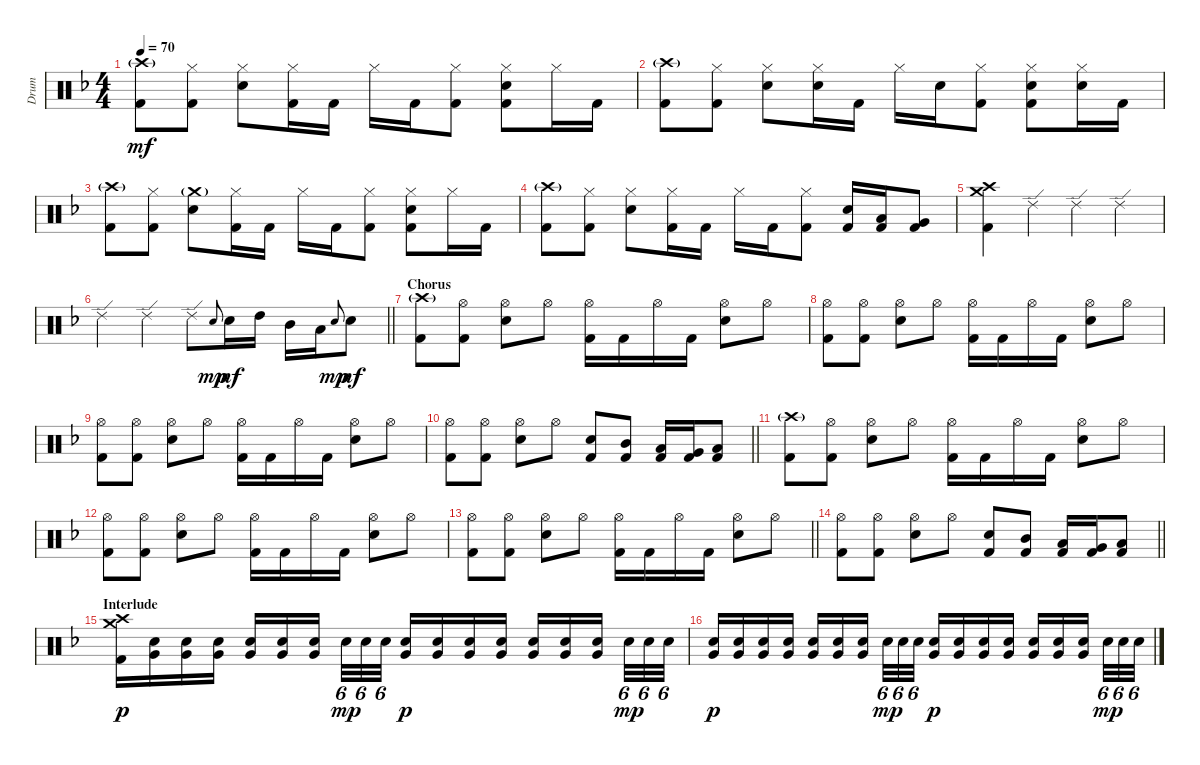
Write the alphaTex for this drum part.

\track ("Drum" "Drum") {instrument percussion}
\staff {score}
\articulation defaults
\ts (4 4)
\tempo 70
\clef neutral
\ks f
("Crash high (hit)"{g} "Kick (hit) 2").8{dy mf} ("Hi-Hat (closed)" "Kick (hit) 2").8 ("Hi-Hat (closed)" "Electric Snare (hit)").8 ("Hi-Hat (closed)" "Kick (hit) 2").16 "Kick (hit) 2".16 "Hi-Hat (closed)".16 "Kick (hit) 2".16 ("Hi-Hat (closed)" "Kick (hit) 2").8 ("Hi-Hat (closed)" "Electric Snare (hit)" "Kick (hit) 2").8 "Hi-Hat (closed)".16 "Kick (hit) 2".16 |
("Crash high (hit)"{g} "Kick (hit) 2").8 ("Hi-Hat (closed)" "Kick (hit) 2").8 ("Hi-Hat (closed)" "Electric Snare (hit)").8 ("Hi-Hat (closed)" "Electric Snare (hit)").16 "Kick (hit) 2".16 "Hi-Hat (closed)".16 "Electric Snare (hit)".16 ("Hi-Hat (closed)" "Kick (hit) 2").8 ("Hi-Hat (closed)" "Electric Snare (hit)" "Kick (hit) 2").8 ("Hi-Hat (closed)" "Electric Snare (hit)").16 "Kick (hit) 2".16 |
("Crash high (hit)"{g} "Kick (hit) 2").8 ("Hi-Hat (closed)" "Kick (hit) 2").8 ("Crash medium (hit)"{g} "Electric Snare (hit)").8 ("Hi-Hat (closed)" "Kick (hit) 2").16 "Kick (hit) 2".16 "Hi-Hat (closed)".16 "Kick (hit) 2".16 ("Hi-Hat (closed)" "Kick (hit) 2").8 ("Hi-Hat (closed)" "Electric Snare (hit)" "Kick (hit) 2").8 "Hi-Hat (closed)".16 "Kick (hit) 2".16 |
("Crash high (hit)"{g} "Kick (hit) 2").8 ("Hi-Hat (closed)" "Kick (hit) 2").8 ("Hi-Hat (closed)" "Electric Snare (hit)").8 ("Hi-Hat (closed)" "Kick (hit) 2").16 "Kick (hit) 2".16 "Hi-Hat (closed)".16 "Kick (hit) 2".16 ("Hi-Hat (closed)" "Kick (hit) 2").8 ("Electric Snare (hit)" "Kick (hit) 2").16 ("Low Tom (hit)" "Kick (hit) 2").16 ("Very Low Tom (hit)" "Kick (hit) 2").8 |
("Crash high (hit)" "Crash medium (hit)" "Kick (hit) 2").4 "Ride (edge) 2".4 "Ride (edge) 2".4 "Ride (edge) 2".4 |
\barLineRight lightlight "Ride (edge) 2".4 "Ride (edge) 2".4 "Ride (edge) 2".8 "Electric Snare (hit)".8{gr onbeat dy mp} "Electric Snare (hit)".16{dy mf} "High Tom (hit)".16 "Mid Tom (hit)".16 "Low Tom (hit)".16 "Electric Snare (hit)".8{gr onbeat dy mp} "Electric Snare (hit)".8{dy mf}
|
\section ("" "Chorus")
("Crash high (hit)"{g} "Kick (hit) 2").8 ("Hi-Hat (open)" "Kick (hit) 2").8 ("Hi-Hat (open)" "Electric Snare (hit)").8 "Hi-Hat (open)".8 ("Hi-Hat (open)" "Kick (hit) 2").16 "Kick (hit) 2".16 "Hi-Hat (open)".16 "Kick (hit) 2".16 ("Hi-Hat (open)" "Electric Snare (hit)").8 "Hi-Hat (open)".8 |
("Hi-Hat (open)" "Kick (hit) 2").8 ("Hi-Hat (open)" "Kick (hit) 2").8 ("Hi-Hat (open)" "Electric Snare (hit)").8 "Hi-Hat (open)".8 ("Hi-Hat (open)" "Kick (hit) 2").16 "Kick (hit) 2".16 "Hi-Hat (open)".16 "Kick (hit) 2".16 ("Hi-Hat (open)" "Electric Snare (hit)").8 "Hi-Hat (open)".8 |
("Hi-Hat (open)" "Kick (hit) 2").8 ("Hi-Hat (open)" "Kick (hit) 2").8 ("Hi-Hat (open)" "Electric Snare (hit)").8 "Hi-Hat (open)".8 ("Hi-Hat (open)" "Kick (hit) 2").16 "Kick (hit) 2".16 "Hi-Hat (open)".16 "Kick (hit) 2".16 ("Hi-Hat (open)" "Electric Snare (hit)").8 "Hi-Hat (open)".8 |
\barLineRight lightlight
("Hi-Hat (open)" "Kick (hit) 2").8 ("Hi-Hat (open)" "Kick (hit) 2").8 ("Hi-Hat (open)" "Electric Snare (hit)").8 "Hi-Hat (open)".8 ("Electric Snare (hit)" "Kick (hit) 2").8 ("Mid Tom (hit)" "Kick (hit) 2").8 ("Low Tom (hit)" "Kick (hit) 2").16 ("Very Low Tom (hit)" "Kick (hit) 2").16 ("Low Floor Tom (hit)" "Kick (hit) 2").8 |
("Crash high (hit)"{g} "Kick (hit) 2").8 ("Hi-Hat (open)" "Kick (hit) 2").8 ("Hi-Hat (open)" "Electric Snare (hit)").8 "Hi-Hat (open)".8 ("Hi-Hat (open)" "Kick (hit) 2").16 "Kick (hit) 2".16 "Hi-Hat (open)".16 "Kick (hit) 2".16 ("Hi-Hat (open)" "Electric Snare (hit)").8 "Hi-Hat (open)".8 |
("Hi-Hat (open)" "Kick (hit) 2").8 ("Hi-Hat (open)" "Kick (hit) 2").8 ("Hi-Hat (open)" "Electric Snare (hit)").8 "Hi-Hat (open)".8 ("Hi-Hat (open)" "Kick (hit) 2").16 "Kick (hit) 2".16 "Hi-Hat (open)".16 "Kick (hit) 2".16 ("Hi-Hat (open)" "Electric Snare (hit)").8 "Hi-Hat (open)".8 |
\barLineRight lightlight
("Hi-Hat (open)" "Kick (hit) 2").8 ("Hi-Hat (open)" "Kick (hit) 2").8 ("Hi-Hat (open)" "Electric Snare (hit)").8 "Hi-Hat (open)".8 ("Hi-Hat (open)" "Kick (hit) 2").16 "Kick (hit) 2".16 "Hi-Hat (open)".16 "Kick (hit) 2".16 ("Hi-Hat (open)" "Electric Snare (hit)").8 "Hi-Hat (open)".8 |
\barLineRight lightlight
("Hi-Hat (open)" "Kick (hit) 2").8 ("Hi-Hat (open)" "Kick (hit) 2").8 ("Hi-Hat (open)" "Electric Snare (hit)").8 "Hi-Hat (open)".8 ("Electric Snare (hit)" "Kick (hit) 2").8 ("Mid Tom (hit)" "Kick (hit) 2").8 ("Low Tom (hit)" "Kick (hit) 2").16 ("Very Low Tom (hit)" "Kick (hit) 2").16 ("Low Floor Tom (hit)" "Kick (hit) 2").8 |
\section ("" "Interlude")
("Crash medium (hit)" "Crash high (hit)" "Kick (hit) 2").16{dy p} ("Very Low Tom (hit)" "Electric Snare (hit)").16 ("Very Low Tom (hit)" "Electric Snare (hit)").16 ("Very Low Tom (hit)" "Electric Snare (hit)").16 ("Very Low Tom (hit)" "Electric Snare (hit)").16 ("Very Low Tom (hit)" "Electric Snare (hit)").16 ("Very Low Tom (hit)" "Electric Snare (hit)").16{beam splitsecondary} "Electric Snare (hit)".32{tu (6 4) dy mp} "Electric Snare (hit)".32{tu (6 4)} "Electric Snare (hit)".32{tu (6 4)} ("Very Low Tom (hit)" "Electric Snare (hit)").16{dy p} ("Very Low Tom (hit)" "Electric Snare (hit)").16 ("Very Low Tom (hit)" "Electric Snare (hit)").16 ("Very Low Tom (hit)" "Electric Snare (hit)").16 ("Very Low Tom (hit)" "Electric Snare (hit)").16 ("Very Low Tom (hit)" "Electric Snare (hit)").16 ("Very Low Tom (hit)" "Electric Snare (hit)").16{beam splitsecondary} "Electric Snare (hit)".32{tu (6 4) dy mp} "Electric Snare (hit)".32{tu (6 4)} "Electric Snare (hit)".32{tu (6 4)} |
("Very Low Tom (hit)" "Electric Snare (hit)").16{dy p} ("Very Low Tom (hit)" "Electric Snare (hit)").16 ("Very Low Tom (hit)" "Electric Snare (hit)").16 ("Very Low Tom (hit)" "Electric Snare (hit)").16 ("Very Low Tom (hit)" "Electric Snare (hit)").16 ("Very Low Tom (hit)" "Electric Snare (hit)").16 ("Very Low Tom (hit)" "Electric Snare (hit)").16{beam splitsecondary} "Electric Snare (hit)".32{tu (6 4) dy mp} "Electric Snare (hit)".32{tu (6 4)} "Electric Snare (hit)".32{tu (6 4)} ("Very Low Tom (hit)" "Electric Snare (hit)").16{dy p} ("Very Low Tom (hit)" "Electric Snare (hit)").16 ("Very Low Tom (hit)" "Electric Snare (hit)").16 ("Very Low Tom (hit)" "Electric Snare (hit)").16 ("Very Low Tom (hit)" "Electric Snare (hit)").16 ("Very Low Tom (hit)" "Electric Snare (hit)").16 ("Very Low Tom (hit)" "Electric Snare (hit)").16{beam splitsecondary} "Electric Snare (hit)".32{tu (6 4) dy mp} "Electric Snare (hit)".32{tu (6 4)} "Electric Snare (hit)".32{tu (6 4)}
